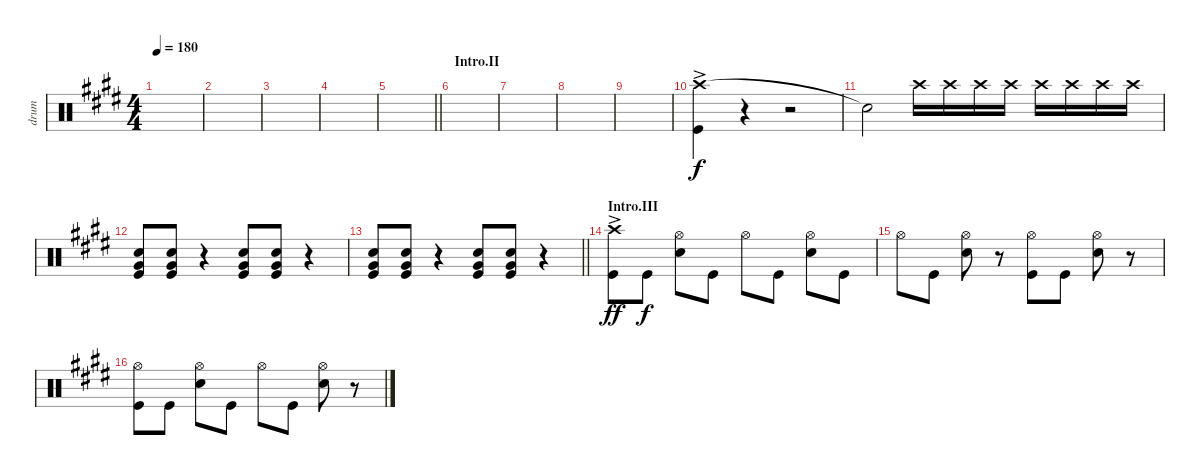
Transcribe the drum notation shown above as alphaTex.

\track ("drum" "drum") {instrument percussion}
\staff {score}
\articulation defaults
\ts (4 4)
\tempo 180
\clef neutral
\ks e
|
|
|
|
\barLineRight lightlight
|
\section ("" "Intro.II")
|
|
|
|
("Crash high (hit)"{ac} "Kick (hit)").4 r.4 r.2 |
"Snare (hit)"{t}.2{dy f volume 5} "Crash high (hit)".16{volume 16} "Crash high (hit)".16 "Crash high (hit)".16 "Crash high (hit)".16 "Crash high (hit)".16 "Crash high (hit)".16 "Crash high (hit)".16 "Crash high (hit)".16 |
("Snare (hit) 2" "Very Low Tom (hit)" "Kick (hit)").8{volume 15} ("Snare (hit) 2" "Very Low Tom (hit)" "Kick (hit)").8 r.4 ("Snare (hit) 2" "Very Low Tom (hit)" "Kick (hit)").8 ("Snare (hit) 2" "Very Low Tom (hit)" "Kick (hit)").8 r.4 |
\barLineRight lightlight
("Snare (hit) 2" "Very Low Tom (hit)" "Kick (hit)").8 ("Snare (hit) 2" "Very Low Tom (hit)" "Kick (hit)").8 r.4 ("Snare (hit) 2" "Very Low Tom (hit)" "Kick (hit)").8 ("Snare (hit) 2" "Very Low Tom (hit)" "Kick (hit)").8 r.4 |
\section ("" "Intro.III")
("Crash high (hit)"{ac} "Kick (hit)").8{dy ff} "Kick (hit)".8{dy f} ("Hi-Hat (open)" "Snare (hit) 2").8 "Kick (hit)".8 "Hi-Hat (open)".8 "Kick (hit)".8 ("Hi-Hat (open)" "Snare (hit) 2").8 "Kick (hit)".8 |
"Hi-Hat (open)".8 "Kick (hit)".8 ("Hi-Hat (open)" "Snare (hit) 2").8 r.8 ("Hi-Hat (open)" "Kick (hit)").8 "Kick (hit)".8 ("Hi-Hat (open)" "Snare (hit) 2").8 r.8 |
("Hi-Hat (open)" "Kick (hit)").8 "Kick (hit)".8 ("Hi-Hat (open)" "Snare (hit) 2").8 "Kick (hit)".8 "Hi-Hat (open)".8 "Kick (hit)".8 ("Hi-Hat (open)" "Snare (hit) 2").8 r.8
